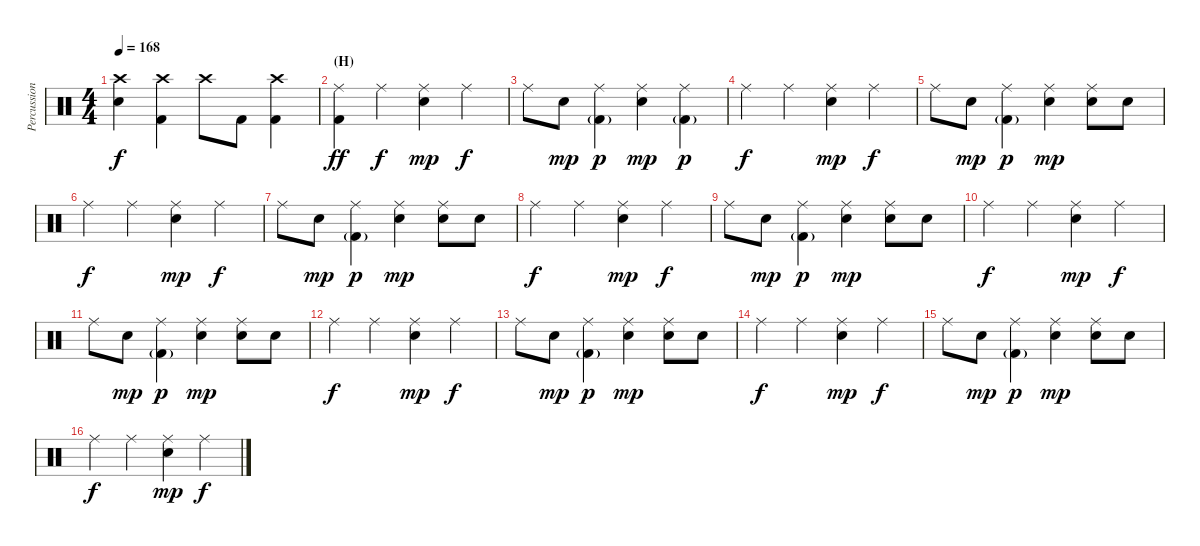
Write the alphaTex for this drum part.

\track ("Percussion" "Percussion") {instrument percussion}
\staff {score}
\articulation defaults
\ts (4 4)
\tempo 168
\clef neutral
\ks c
("Crash high (hit)" "Snare (hit) 2").4{dy f} ("Crash high (hit)" "Kick (hit) 2").4 "Crash high (hit)".8 "Kick (hit) 2".8 ("Crash high (hit)" "Kick (hit) 2").4 |
\section ("" "(H)")
("Ride (middle)" "Kick (hit) 2").4{dy ff volume 11} "Ride (middle)".4{dy f} ("Ride (middle)" "Snare (hit) 2").4{dy mp} "Ride (middle)".4{dy f} |
"Ride (middle)".8 "Snare (hit) 2".8{dy mp} ("Ride (middle)" "Kick (hit) 2"{g}).4{dy p} ("Ride (middle)" "Snare (hit) 2").4{dy mp} ("Ride (middle)" "Kick (hit) 2"{g}).4{dy p} |
"Ride (middle)".4{dy f} "Ride (middle)".4 ("Ride (middle)" "Snare (hit) 2").4{dy mp} "Ride (middle)".4{dy f} |
"Ride (middle)".8 "Snare (hit) 2".8{dy mp} ("Ride (middle)" "Kick (hit) 2"{g}).4{dy p} ("Ride (middle)" "Snare (hit) 2").4{dy mp} ("Ride (middle)" "Snare (hit) 2").8 "Snare (hit) 2".8 |
"Ride (middle)".4{dy f} "Ride (middle)".4 ("Ride (middle)" "Snare (hit) 2").4{dy mp} "Ride (middle)".4{dy f} |
"Ride (middle)".8 "Snare (hit) 2".8{dy mp} ("Ride (middle)" "Kick (hit) 2"{g}).4{dy p} ("Ride (middle)" "Snare (hit) 2").4{dy mp} ("Ride (middle)" "Snare (hit) 2").8 "Snare (hit) 2".8 |
"Ride (middle)".4{dy f} "Ride (middle)".4 ("Ride (middle)" "Snare (hit) 2").4{dy mp} "Ride (middle)".4{dy f} |
"Ride (middle)".8 "Snare (hit) 2".8{dy mp} ("Ride (middle)" "Kick (hit) 2"{g}).4{dy p} ("Ride (middle)" "Snare (hit) 2").4{dy mp} ("Ride (middle)" "Snare (hit) 2").8 "Snare (hit) 2".8 |
"Ride (middle)".4{dy f} "Ride (middle)".4 ("Ride (middle)" "Snare (hit) 2").4{dy mp} "Ride (middle)".4{dy f} |
"Ride (middle)".8 "Snare (hit) 2".8{dy mp} ("Ride (middle)" "Kick (hit) 2"{g}).4{dy p} ("Ride (middle)" "Snare (hit) 2").4{dy mp} ("Ride (middle)" "Snare (hit) 2").8 "Snare (hit) 2".8 |
"Ride (middle)".4{dy f} "Ride (middle)".4 ("Ride (middle)" "Snare (hit) 2").4{dy mp} "Ride (middle)".4{dy f} |
"Ride (middle)".8 "Snare (hit) 2".8{dy mp} ("Ride (middle)" "Kick (hit) 2"{g}).4{dy p} ("Ride (middle)" "Snare (hit) 2").4{dy mp} ("Ride (middle)" "Snare (hit) 2").8 "Snare (hit) 2".8 |
"Ride (middle)".4{dy f} "Ride (middle)".4 ("Ride (middle)" "Snare (hit) 2").4{dy mp} "Ride (middle)".4{dy f} |
"Ride (middle)".8 "Snare (hit) 2".8{dy mp} ("Ride (middle)" "Kick (hit) 2"{g}).4{dy p} ("Ride (middle)" "Snare (hit) 2").4{dy mp} ("Ride (middle)" "Snare (hit) 2").8 "Snare (hit) 2".8 |
"Ride (middle)".4{dy f} "Ride (middle)".4 ("Ride (middle)" "Snare (hit) 2").4{dy mp} "Ride (middle)".4{dy f}
